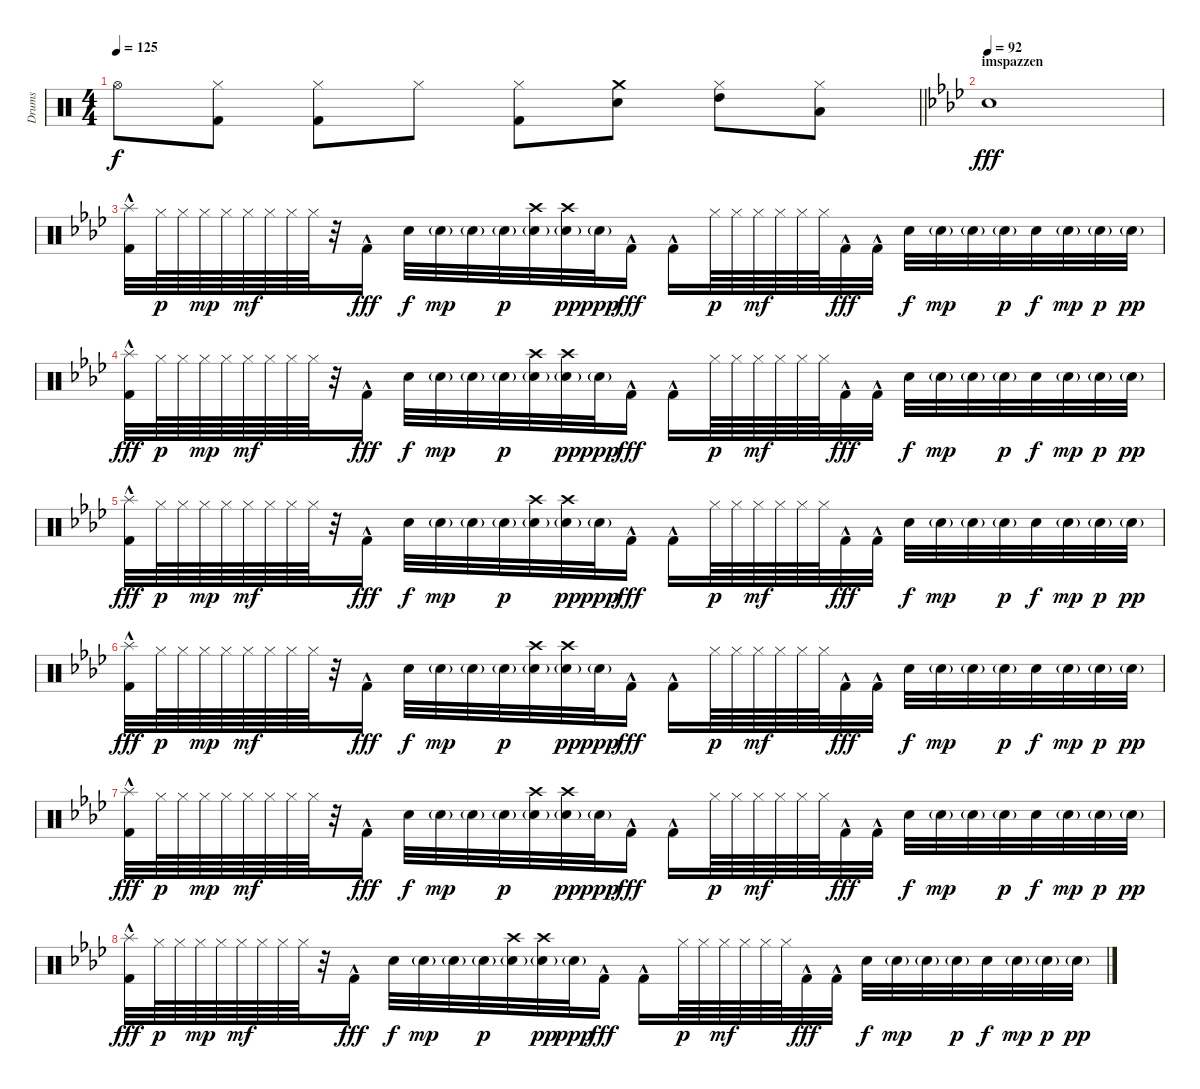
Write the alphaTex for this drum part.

\track ("Drums" "Drums") {instrument percussion}
\staff {score}
\articulation defaults
\ts (4 4)
\tempo 125
\clef neutral
\barLineRight lightlight
\ks c "Hi-Hat (open)"{t}.8{dy f}
("Hi-Hat (closed)" "Kick (hit) 2").8 ("Hi-Hat (closed)" "Kick (hit) 2").8 "Hi-Hat (closed)".8 ("Hi-Hat (closed)" "Kick (hit) 2").8 ("Crash medium (hit)" "Electric Snare (hit)").8 ("Hi-Hat (closed)" "High Tom (hit)").8 ("Hi-Hat (closed)" "Low Tom (hit)").8 |
\section ("" "imspazzen")
\tempo 92
\ks ab "Electric Snare (hit)".1{dy fff}
|
\ks fminor
("Splash (hit)" "Kick (hit) 2"{hac}).32 "Hi-Hat (closed)".64{dy p} "Hi-Hat (closed)".64 "Hi-Hat (closed)".64{dy mp} "Hi-Hat (closed)".64 "Hi-Hat (closed)".64{dy mf} "Hi-Hat (closed)".64 "Hi-Hat (closed)".64 "Hi-Hat (closed)".64 r.32 "Kick (hit) 2"{hac}.16{dy fff} "Snare (hit) 2".32{dy f} "Snare (hit) 2"{g}.32{dy mp} "Snare (hit) 2"{g}.32 "Snare (hit) 2"{g}.32{dy p} ("Crash high (hit)" "Snare (hit) 2"{g}).32 ("Crash high (hit)" "Snare (hit) 2"{g}).32{dy pp} "Snare (hit) 2"{g}.32{dy ppp} "Kick (hit) 2"{hac}.16{dy fff} "Kick (hit) 2"{hac}.16 "Hi-Hat (closed)".64{dy p} "Hi-Hat (closed)".64 "Hi-Hat (closed)".64{dy mf} "Hi-Hat (closed)".64 "Hi-Hat (closed)".64 "Hi-Hat (closed)".64 "Kick (hit) 2"{hac}.32{dy fff} "Kick (hit) 2"{hac}.32 "Snare (hit) 2".32{dy f} "Snare (hit) 2"{g}.32{dy mp} "Snare (hit) 2"{g}.32 "Snare (hit) 2"{g}.32{dy p} "Snare (hit) 2".32{dy f} "Snare (hit) 2"{g}.32{dy mp} "Snare (hit) 2"{g}.32{dy p} "Snare (hit) 2"{g}.32{dy pp} |
("Splash (hit)" "Kick (hit) 2"{hac}).32{dy fff} "Hi-Hat (closed)".64{dy p} "Hi-Hat (closed)".64 "Hi-Hat (closed)".64{dy mp} "Hi-Hat (closed)".64 "Hi-Hat (closed)".64{dy mf} "Hi-Hat (closed)".64 "Hi-Hat (closed)".64 "Hi-Hat (closed)".64 r.32 "Kick (hit) 2"{hac}.16{dy fff} "Snare (hit) 2".32{dy f} "Snare (hit) 2"{g}.32{dy mp} "Snare (hit) 2"{g}.32 "Snare (hit) 2"{g}.32{dy p} ("Crash high (hit)" "Snare (hit) 2"{g}).32 ("Crash high (hit)" "Snare (hit) 2"{g}).32{dy pp} "Snare (hit) 2"{g}.32{dy ppp} "Kick (hit) 2"{hac}.16{dy fff} "Kick (hit) 2"{hac}.16 "Hi-Hat (closed)".64{dy p} "Hi-Hat (closed)".64 "Hi-Hat (closed)".64{dy mf} "Hi-Hat (closed)".64 "Hi-Hat (closed)".64 "Hi-Hat (closed)".64 "Kick (hit) 2"{hac}.32{dy fff} "Kick (hit) 2"{hac}.32 "Snare (hit) 2".32{dy f} "Snare (hit) 2"{g}.32{dy mp} "Snare (hit) 2"{g}.32 "Snare (hit) 2"{g}.32{dy p} "Snare (hit) 2".32{dy f} "Snare (hit) 2"{g}.32{dy mp} "Snare (hit) 2"{g}.32{dy p} "Snare (hit) 2"{g}.32{dy pp} |
("Splash (hit)" "Kick (hit) 2"{hac}).32{dy fff} "Hi-Hat (closed)".64{dy p} "Hi-Hat (closed)".64 "Hi-Hat (closed)".64{dy mp} "Hi-Hat (closed)".64 "Hi-Hat (closed)".64{dy mf} "Hi-Hat (closed)".64 "Hi-Hat (closed)".64 "Hi-Hat (closed)".64 r.32 "Kick (hit) 2"{hac}.16{dy fff} "Snare (hit) 2".32{dy f} "Snare (hit) 2"{g}.32{dy mp} "Snare (hit) 2"{g}.32 "Snare (hit) 2"{g}.32{dy p} ("Crash high (hit)" "Snare (hit) 2"{g}).32 ("Crash high (hit)" "Snare (hit) 2"{g}).32{dy pp} "Snare (hit) 2"{g}.32{dy ppp} "Kick (hit) 2"{hac}.16{dy fff} "Kick (hit) 2"{hac}.16 "Hi-Hat (closed)".64{dy p} "Hi-Hat (closed)".64 "Hi-Hat (closed)".64{dy mf} "Hi-Hat (closed)".64 "Hi-Hat (closed)".64 "Hi-Hat (closed)".64 "Kick (hit) 2"{hac}.32{dy fff} "Kick (hit) 2"{hac}.32 "Snare (hit) 2".32{dy f} "Snare (hit) 2"{g}.32{dy mp} "Snare (hit) 2"{g}.32 "Snare (hit) 2"{g}.32{dy p} "Snare (hit) 2".32{dy f} "Snare (hit) 2"{g}.32{dy mp} "Snare (hit) 2"{g}.32{dy p} "Snare (hit) 2"{g}.32{dy pp} |
("Splash (hit)" "Kick (hit) 2"{hac}).32{dy fff} "Hi-Hat (closed)".64{dy p} "Hi-Hat (closed)".64 "Hi-Hat (closed)".64{dy mp} "Hi-Hat (closed)".64 "Hi-Hat (closed)".64{dy mf} "Hi-Hat (closed)".64 "Hi-Hat (closed)".64 "Hi-Hat (closed)".64 r.32 "Kick (hit) 2"{hac}.16{dy fff} "Snare (hit) 2".32{dy f} "Snare (hit) 2"{g}.32{dy mp} "Snare (hit) 2"{g}.32 "Snare (hit) 2"{g}.32{dy p} ("Crash high (hit)" "Snare (hit) 2"{g}).32 ("Crash high (hit)" "Snare (hit) 2"{g}).32{dy pp} "Snare (hit) 2"{g}.32{dy ppp} "Kick (hit) 2"{hac}.16{dy fff} "Kick (hit) 2"{hac}.16 "Hi-Hat (closed)".64{dy p} "Hi-Hat (closed)".64 "Hi-Hat (closed)".64{dy mf} "Hi-Hat (closed)".64 "Hi-Hat (closed)".64 "Hi-Hat (closed)".64 "Kick (hit) 2"{hac}.32{dy fff} "Kick (hit) 2"{hac}.32 "Snare (hit) 2".32{dy f} "Snare (hit) 2"{g}.32{dy mp} "Snare (hit) 2"{g}.32 "Snare (hit) 2"{g}.32{dy p} "Snare (hit) 2".32{dy f} "Snare (hit) 2"{g}.32{dy mp} "Snare (hit) 2"{g}.32{dy p} "Snare (hit) 2"{g}.32{dy pp} |
("Splash (hit)" "Kick (hit) 2"{hac}).32{dy fff} "Hi-Hat (closed)".64{dy p} "Hi-Hat (closed)".64 "Hi-Hat (closed)".64{dy mp} "Hi-Hat (closed)".64 "Hi-Hat (closed)".64{dy mf} "Hi-Hat (closed)".64 "Hi-Hat (closed)".64 "Hi-Hat (closed)".64 r.32 "Kick (hit) 2"{hac}.16{dy fff} "Snare (hit) 2".32{dy f} "Snare (hit) 2"{g}.32{dy mp} "Snare (hit) 2"{g}.32 "Snare (hit) 2"{g}.32{dy p} ("Crash high (hit)" "Snare (hit) 2"{g}).32 ("Crash high (hit)" "Snare (hit) 2"{g}).32{dy pp} "Snare (hit) 2"{g}.32{dy ppp} "Kick (hit) 2"{hac}.16{dy fff} "Kick (hit) 2"{hac}.16 "Hi-Hat (closed)".64{dy p} "Hi-Hat (closed)".64 "Hi-Hat (closed)".64{dy mf} "Hi-Hat (closed)".64 "Hi-Hat (closed)".64 "Hi-Hat (closed)".64 "Kick (hit) 2"{hac}.32{dy fff} "Kick (hit) 2"{hac}.32 "Snare (hit) 2".32{dy f} "Snare (hit) 2"{g}.32{dy mp} "Snare (hit) 2"{g}.32 "Snare (hit) 2"{g}.32{dy p} "Snare (hit) 2".32{dy f} "Snare (hit) 2"{g}.32{dy mp} "Snare (hit) 2"{g}.32{dy p} "Snare (hit) 2"{g}.32{dy pp} |
("Splash (hit)" "Kick (hit) 2"{hac}).32{dy fff} "Hi-Hat (closed)".64{dy p} "Hi-Hat (closed)".64 "Hi-Hat (closed)".64{dy mp} "Hi-Hat (closed)".64 "Hi-Hat (closed)".64{dy mf} "Hi-Hat (closed)".64 "Hi-Hat (closed)".64 "Hi-Hat (closed)".64 r.32 "Kick (hit) 2"{hac}.16{dy fff} "Snare (hit) 2".32{dy f} "Snare (hit) 2"{g}.32{dy mp} "Snare (hit) 2"{g}.32 "Snare (hit) 2"{g}.32{dy p} ("Crash high (hit)" "Snare (hit) 2"{g}).32 ("Crash high (hit)" "Snare (hit) 2"{g}).32{dy pp} "Snare (hit) 2"{g}.32{dy ppp} "Kick (hit) 2"{hac}.16{dy fff} "Kick (hit) 2"{hac}.16 "Hi-Hat (closed)".64{dy p} "Hi-Hat (closed)".64 "Hi-Hat (closed)".64{dy mf} "Hi-Hat (closed)".64 "Hi-Hat (closed)".64 "Hi-Hat (closed)".64 "Kick (hit) 2"{hac}.32{dy fff} "Kick (hit) 2"{hac}.32 "Snare (hit) 2".32{dy f} "Snare (hit) 2"{g}.32{dy mp} "Snare (hit) 2"{g}.32 "Snare (hit) 2"{g}.32{dy p} "Snare (hit) 2".32{dy f} "Snare (hit) 2"{g}.32{dy mp} "Snare (hit) 2"{g}.32{dy p} "Snare (hit) 2"{g}.32{dy pp}
